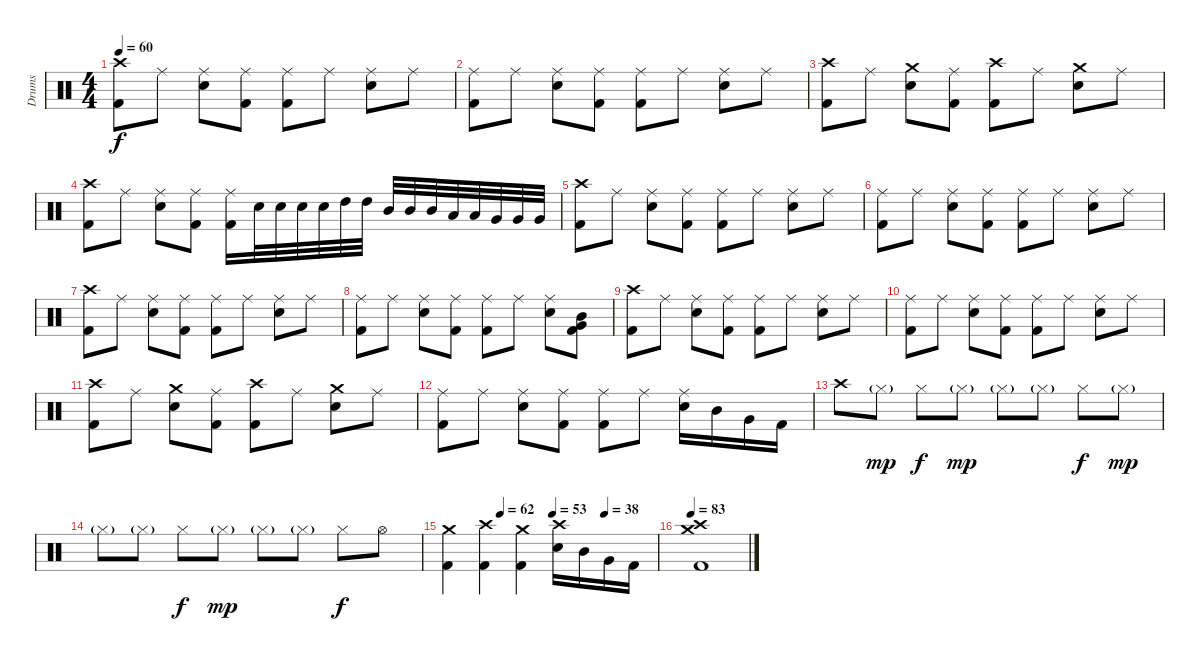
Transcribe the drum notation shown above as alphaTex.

\track ("Drums" "Drums") {instrument percussion}
\staff {score}
\articulation defaults
\ts (4 4)
\tempo 60
\clef neutral
\ks c
("Crash high (hit)" "Kick (hit) 2").8{dy f} "Ride (middle)".8 ("Ride (middle)" "Electric Snare (hit)").8 ("Ride (middle)" "Kick (hit) 2").8 ("Ride (middle)" "Kick (hit) 2").8 "Ride (middle)".8 ("Ride (middle)" "Electric Snare (hit)").8 "Ride (middle)".8 |
("Ride (middle)" "Kick (hit) 2").8 "Ride (middle)".8 ("Ride (middle)" "Electric Snare (hit)").8 ("Ride (middle)" "Kick (hit) 2").8 ("Ride (middle)" "Kick (hit) 2").8 "Ride (middle)".8 ("Ride (middle)" "Electric Snare (hit)").8 "Ride (middle)".8 |
("Crash high (hit)" "Kick (hit) 2").8 "Ride (middle)".8 ("Crash medium (hit)" "Electric Snare (hit)").8 ("Ride (middle)" "Kick (hit) 2").8 ("Crash high (hit)" "Kick (hit) 2").8 "Ride (middle)".8 ("Crash medium (hit)" "Electric Snare (hit)").8 "Ride (middle)".8 |
("Crash high (hit)" "Kick (hit) 2").8 "Ride (middle)".8 ("Ride (middle)" "Electric Snare (hit)").8 ("Ride (middle)" "Kick (hit) 2").8 ("Ride (middle)" "Kick (hit) 2").16 "Electric Snare (hit)".32 "Electric Snare (hit)".32 "Electric Snare (hit)".32 "Electric Snare (hit)".32 "High Tom (hit)".32{balance 14} "High Tom (hit)".32 "Mid Tom (hit)".32{balance 13} "Mid Tom (hit)".32 "Mid Tom (hit)".32 "Low Tom (hit)".32{balance 10} "Low Tom (hit)".32 "Very Low Tom (hit)".32{balance 8} "Very Low Tom (hit)".32 "Very Low Tom (hit)".32 |
("Crash high (hit)" "Kick (hit) 2").8 "Ride (middle)".8 ("Ride (middle)" "Electric Snare (hit)").8 ("Ride (middle)" "Kick (hit) 2").8 ("Ride (middle)" "Kick (hit) 2").8 "Ride (middle)".8 ("Ride (middle)" "Electric Snare (hit)").8 "Ride (middle)".8 |
("Ride (middle)" "Kick (hit) 2").8 "Ride (middle)".8 ("Ride (middle)" "Electric Snare (hit)").8 ("Ride (middle)" "Kick (hit) 2").8 ("Ride (middle)" "Kick (hit) 2").8 "Ride (middle)".8 ("Ride (middle)" "Electric Snare (hit)").8 "Ride (middle)".8 |
("Crash high (hit)" "Kick (hit) 2").8 "Ride (middle)".8 ("Ride (middle)" "Electric Snare (hit)").8 ("Ride (middle)" "Kick (hit) 2").8 ("Ride (middle)" "Kick (hit) 2").8 "Ride (middle)".8 ("Ride (middle)" "Electric Snare (hit)").8 "Ride (middle)".8 |
("Ride (middle)" "Kick (hit) 2").8 "Ride (middle)".8 ("Ride (middle)" "Electric Snare (hit)").8 ("Ride (middle)" "Kick (hit) 2").8 ("Ride (middle)" "Kick (hit) 2").8 "Ride (middle)".8 ("Ride (middle)" "Electric Snare (hit)").8 ("Mid Tom (hit)" "Very Low Tom (hit)" "Kick (hit) 2").8 |
("Crash high (hit)" "Kick (hit) 2").8 "Ride (middle)".8 ("Ride (middle)" "Electric Snare (hit)").8 ("Ride (middle)" "Kick (hit) 2").8 ("Ride (middle)" "Kick (hit) 2").8 "Ride (middle)".8 ("Ride (middle)" "Electric Snare (hit)").8 "Ride (middle)".8 |
("Ride (middle)" "Kick (hit) 2").8 "Ride (middle)".8 ("Ride (middle)" "Electric Snare (hit)").8 ("Ride (middle)" "Kick (hit) 2").8 ("Ride (middle)" "Kick (hit) 2").8 "Ride (middle)".8 ("Ride (middle)" "Electric Snare (hit)").8 "Ride (middle)".8 |
("Crash high (hit)" "Kick (hit) 2").8 "Ride (middle)".8 ("Crash medium (hit)" "Electric Snare (hit)").8 ("Ride (middle)" "Kick (hit) 2").8 ("Crash high (hit)" "Kick (hit) 2").8 "Ride (middle)".8 ("Crash medium (hit)" "Electric Snare (hit)").8 "Ride (middle)".8 |
("Ride (middle)" "Kick (hit) 2").8 "Ride (middle)".8 ("Ride (middle)" "Electric Snare (hit)").8 ("Ride (middle)" "Kick (hit) 2").8 ("Ride (middle)" "Kick (hit) 2").8 "Ride (middle)".8 ("Ride (middle)" "Electric Snare (hit)").16 "Mid Tom (hit)".16{balance 13} "Very Low Tom (hit)".16{balance 11} "Kick (hit) 2".16{balance 8} |
"Crash high (hit)".8 "Hi-Hat (closed)"{g}.8{dy mp} "Hi-Hat (closed)".8{dy f} "Hi-Hat (closed)"{g}.8{dy mp} "Hi-Hat (closed)"{g}.8 "Hi-Hat (closed)"{g}.8 "Hi-Hat (closed)".8{dy f} "Hi-Hat (closed)"{g}.8{dy mp} |
"Hi-Hat (closed)"{g}.8 "Hi-Hat (closed)"{g}.8 "Hi-Hat (closed)".8{dy f} "Hi-Hat (closed)"{g}.8{dy mp} "Hi-Hat (closed)"{g}.8 "Hi-Hat (closed)"{g}.8 "Hi-Hat (closed)".8{dy f} "Hi-Hat (open)".8 |
\tempo (62 0.25)
\tempo (53 0.5)
\tempo (38 0.75)
("Crash medium (hit)" "Kick (hit) 2").4 ("Crash high (hit)" "Kick (hit) 2").4 ("Crash medium (hit)" "Kick (hit) 2").4 ("Crash high (hit)" "Electric Snare (hit)").16 "Mid Tom (hit)".16 "Very Low Tom (hit)".16 "Kick (hit) 2".16 |
\tempo 83
("Crash high (hit)" "Crash medium (hit)" "Kick (hit) 2").1
